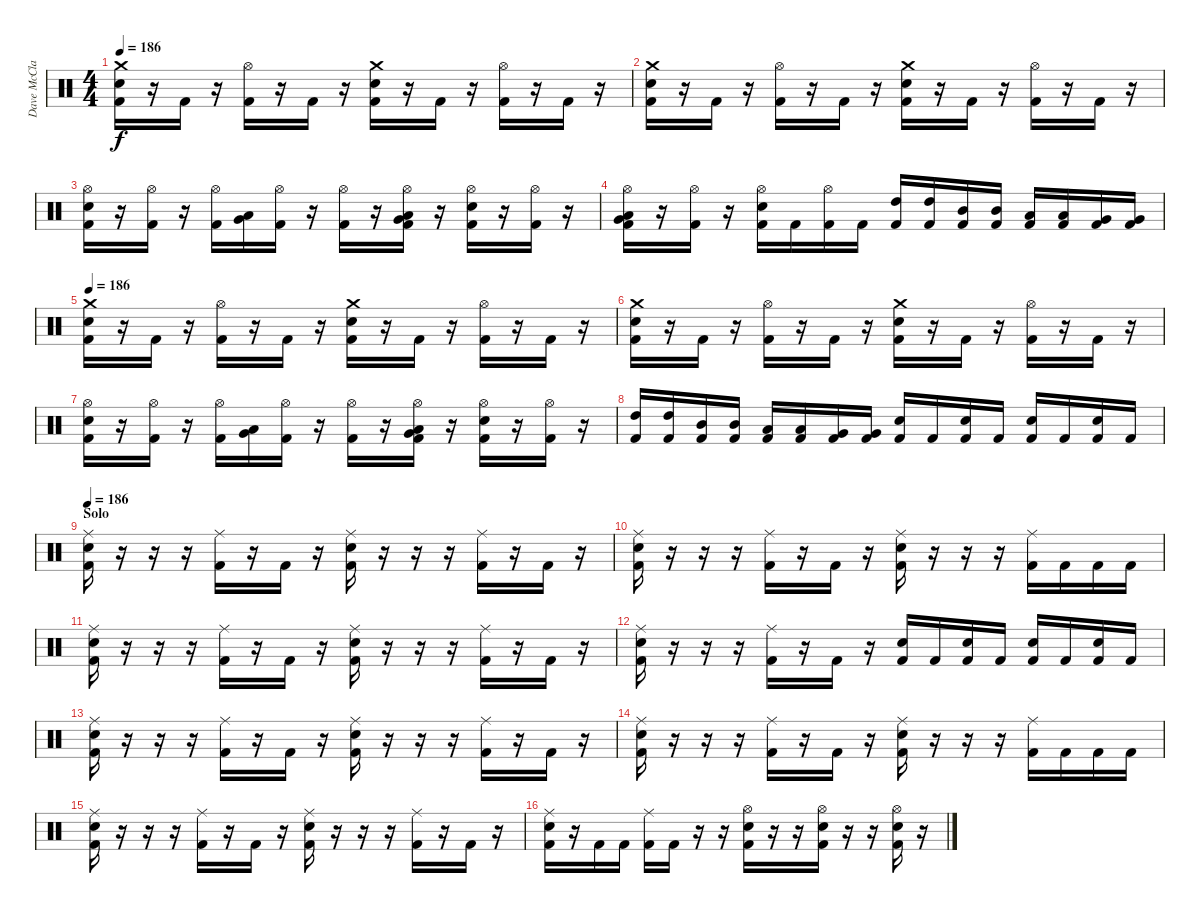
\track ("Dave McClain" "Dave McCla") {instrument percussion}
\staff {score}
\articulation defaults
\ts (4 4)
\tempo 186
\clef neutral
\ks c
("Crash medium (hit)" "Snare (hit) 2" "Kick (hit) 2").16{dy f} r.16 "Kick (hit) 2".16 r.16 ("Hi-Hat (open)" "Kick (hit) 2").16 r.16 "Kick (hit) 2".16 r.16 ("Crash medium (hit)" "Snare (hit) 2" "Kick (hit) 2").16 r.16 "Kick (hit) 2".16 r.16 ("Hi-Hat (open)" "Kick (hit) 2").16 r.16 "Kick (hit) 2".16 r.16 |
("Crash medium (hit)" "Snare (hit) 2" "Kick (hit) 2").16 r.16 "Kick (hit) 2".16 r.16 ("Hi-Hat (open)" "Kick (hit) 2").16 r.16 "Kick (hit) 2".16 r.16 ("Crash medium (hit)" "Snare (hit) 2" "Kick (hit) 2").16 r.16 "Kick (hit) 2".16 r.16 ("Hi-Hat (open)" "Kick (hit) 2").16 r.16 "Kick (hit) 2".16 r.16 |
("Hi-Hat (open)" "Snare (hit) 2" "Kick (hit) 2").16 r.16 ("Hi-Hat (open)" "Kick (hit) 2").16 r.16 ("Hi-Hat (open)" "Kick (hit) 2").16 ("Low Floor Tom (hit)" "Very Low Tom (hit)").16 ("Hi-Hat (open)" "Kick (hit) 2").16 r.16 ("Hi-Hat (open)" "Kick (hit) 2").16 r.16 ("Hi-Hat (open)" "Low Floor Tom (hit)" "Very Low Tom (hit)" "Kick (hit) 2").16 r.16 ("Hi-Hat (open)" "Snare (hit) 2" "Kick (hit) 2").16 r.16 ("Hi-Hat (open)" "Kick (hit) 2").16 r.16 |
("Hi-Hat (open)" "Low Floor Tom (hit)" "Very Low Tom (hit)" "Kick (hit) 2").16 r.16 ("Hi-Hat (open)" "Kick (hit) 2").16 r.16 ("Hi-Hat (open)" "Snare (hit) 2" "Kick (hit) 2").16 "Kick (hit) 2".16 ("Hi-Hat (open)" "Kick (hit) 2").16 "Kick (hit) 2".16 ("High Tom (hit)" "Kick (hit) 2").16 ("High Tom (hit)" "Kick (hit) 2").16 ("Mid Tom (hit)" "Kick (hit) 2").16 ("Mid Tom (hit)" "Kick (hit) 2").16 ("Low Tom (hit)" "Kick (hit) 2").16 ("Low Tom (hit)" "Kick (hit) 2").16 ("Very Low Tom (hit)" "Kick (hit) 2").16 ("Very Low Tom (hit)" "Kick (hit) 2").16 |
\tempo 186
("Crash medium (hit)" "Snare (hit) 2" "Kick (hit) 2").16 r.16 "Kick (hit) 2".16 r.16 ("Hi-Hat (open)" "Kick (hit) 2").16 r.16 "Kick (hit) 2".16 r.16 ("Crash medium (hit)" "Snare (hit) 2" "Kick (hit) 2").16 r.16 "Kick (hit) 2".16 r.16 ("Hi-Hat (open)" "Kick (hit) 2").16 r.16 "Kick (hit) 2".16 r.16 |
("Crash medium (hit)" "Snare (hit) 2" "Kick (hit) 2").16 r.16 "Kick (hit) 2".16 r.16 ("Hi-Hat (open)" "Kick (hit) 2").16 r.16 "Kick (hit) 2".16 r.16 ("Crash medium (hit)" "Snare (hit) 2" "Kick (hit) 2").16 r.16 "Kick (hit) 2".16 r.16 ("Hi-Hat (open)" "Kick (hit) 2").16 r.16 "Kick (hit) 2".16 r.16 |
("Hi-Hat (open)" "Snare (hit) 2" "Kick (hit) 2").16 r.16 ("Hi-Hat (open)" "Kick (hit) 2").16 r.16 ("Hi-Hat (open)" "Kick (hit) 2").16 ("Low Floor Tom (hit)" "Very Low Tom (hit)").16 ("Hi-Hat (open)" "Kick (hit) 2").16 r.16 ("Hi-Hat (open)" "Kick (hit) 2").16 r.16 ("Hi-Hat (open)" "Low Floor Tom (hit)" "Very Low Tom (hit)" "Kick (hit) 2").16 r.16 ("Hi-Hat (open)" "Snare (hit) 2" "Kick (hit) 2").16 r.16 ("Hi-Hat (open)" "Kick (hit) 2").16 r.16 |
("High Tom (hit)" "Kick (hit) 2").16 ("High Tom (hit)" "Kick (hit) 2").16 ("Mid Tom (hit)" "Kick (hit) 2").16 ("Mid Tom (hit)" "Kick (hit) 2").16 ("Low Tom (hit)" "Kick (hit) 2").16 ("Low Tom (hit)" "Kick (hit) 2").16 ("Very Low Tom (hit)" "Kick (hit) 2").16 ("Very Low Tom (hit)" "Kick (hit) 2").16 ("Snare (hit) 2" "Kick (hit) 2").16 "Kick (hit) 2".16 ("Snare (hit) 2" "Kick (hit) 2").16 "Kick (hit) 2".16 ("Snare (hit) 2" "Kick (hit) 2").16 "Kick (hit) 2".16 ("Snare (hit) 2" "Kick (hit) 2").16 "Kick (hit) 2".16 |
\section ("" "Solo")
\tempo 186
("Ride (middle)" "Snare (hit) 2" "Kick (hit) 2").16 r.16 r.16 r.16 ("Ride (middle)" "Kick (hit) 2").16 r.16 "Kick (hit) 2".16 r.16 ("Ride (middle)" "Snare (hit) 2" "Kick (hit) 2").16 r.16 r.16 r.16 ("Ride (middle)" "Kick (hit) 2").16 r.16 "Kick (hit) 2".16 r.16 |
("Ride (middle)" "Snare (hit) 2" "Kick (hit) 2").16 r.16 r.16 r.16 ("Ride (middle)" "Kick (hit) 2").16 r.16 "Kick (hit) 2".16 r.16 ("Ride (middle)" "Snare (hit) 2" "Kick (hit) 2").16 r.16 r.16 r.16 ("Ride (middle)" "Kick (hit) 2").16 "Kick (hit) 2".16 "Kick (hit) 2".16 "Kick (hit) 2".16 |
("Ride (middle)" "Snare (hit) 2" "Kick (hit) 2").16 r.16 r.16 r.16 ("Ride (middle)" "Kick (hit) 2").16 r.16 "Kick (hit) 2".16 r.16 ("Ride (middle)" "Snare (hit) 2" "Kick (hit) 2").16 r.16 r.16 r.16 ("Ride (middle)" "Kick (hit) 2").16 r.16 "Kick (hit) 2".16 r.16 |
("Ride (middle)" "Snare (hit) 2" "Kick (hit) 2").16 r.16 r.16 r.16 ("Ride (middle)" "Kick (hit) 2").16 r.16 "Kick (hit) 2".16 r.16 ("Snare (hit) 2" "Kick (hit) 2").16 "Kick (hit) 2".16 ("Snare (hit) 2" "Kick (hit) 2").16 "Kick (hit) 2".16 ("Snare (hit) 2" "Kick (hit) 2").16 "Kick (hit) 2".16 ("Snare (hit) 2" "Kick (hit) 2").16 "Kick (hit) 2".16 |
("Ride (middle)" "Snare (hit) 2" "Kick (hit) 2").16 r.16 r.16 r.16 ("Ride (middle)" "Kick (hit) 2").16 r.16 "Kick (hit) 2".16 r.16 ("Ride (middle)" "Snare (hit) 2" "Kick (hit) 2").16 r.16 r.16 r.16 ("Ride (middle)" "Kick (hit) 2").16 r.16 "Kick (hit) 2".16 r.16 |
("Ride (middle)" "Snare (hit) 2" "Kick (hit) 2").16 r.16 r.16 r.16 ("Ride (middle)" "Kick (hit) 2").16 r.16 "Kick (hit) 2".16 r.16 ("Ride (middle)" "Snare (hit) 2" "Kick (hit) 2").16 r.16 r.16 r.16 ("Ride (middle)" "Kick (hit) 2").16 "Kick (hit) 2".16 "Kick (hit) 2".16 "Kick (hit) 2".16 |
("Ride (middle)" "Snare (hit) 2" "Kick (hit) 2").16 r.16 r.16 r.16 ("Ride (middle)" "Kick (hit) 2").16 r.16 "Kick (hit) 2".16 r.16 ("Ride (middle)" "Snare (hit) 2" "Kick (hit) 2").16 r.16 r.16 r.16 ("Ride (middle)" "Kick (hit) 2").16 r.16 "Kick (hit) 2".16 r.16 |
("Ride (middle)" "Snare (hit) 2" "Kick (hit) 2").16 r.16 "Kick (hit) 2".16 "Kick (hit) 2".16 ("Ride (middle)" "Kick (hit) 2").16 "Kick (hit) 2".16 r.16 r.16 ("Hi-Hat (open)" "Snare (hit) 2" "Kick (hit) 2").16 r.16 r.16 ("Hi-Hat (open)" "Snare (hit) 2" "Kick (hit) 2").16 r.16 r.16 ("Hi-Hat (open)" "Snare (hit) 2" "Kick (hit) 2").16 r.16
